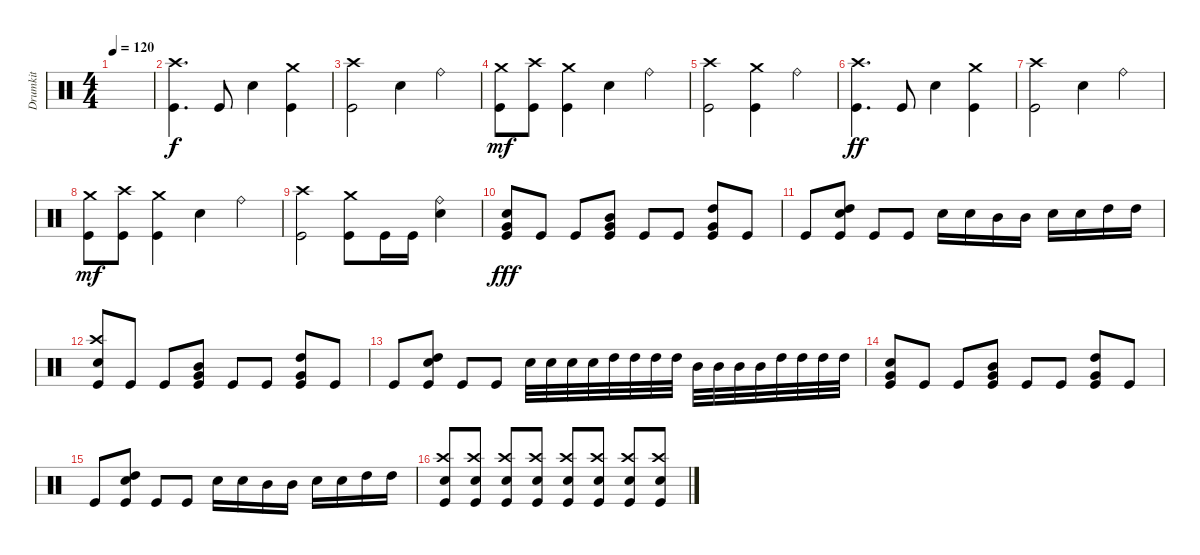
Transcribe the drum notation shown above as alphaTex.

\track ("Drumkit" "Drumkit") {instrument percussion}
\staff {score}
\articulation defaults
\ts (4 4)
\tempo 120
\clef neutral
\ks c
|
("Kick (hit)" "Crash high (hit)").4{d} "Kick (hit)".8 "Snare (hit) 2".4 ("Kick (hit)" "Crash medium (hit)").4 |
("Kick (hit)" "Crash high (hit)").2 "Snare (hit) 2".4 "Ride (bell)".4 |
("Kick (hit)" "Crash medium (hit)").8{dy mf} ("Kick (hit)" "Crash high (hit)").8 ("Kick (hit)" "Crash medium (hit)").4 "Snare (hit) 2".4 "Ride (bell)".4 |
("Kick (hit)" "Crash high (hit)").2 ("Kick (hit)" "Crash medium (hit)").4 "Ride (bell)".4 |
("Kick (hit)" "Crash high (hit)").4{d dy ff} "Kick (hit)".8 "Snare (hit) 2".4 ("Kick (hit)" "Crash medium (hit)").4 |
("Kick (hit)" "Crash high (hit)").2 "Snare (hit) 2".4 "Ride (bell)".4 |
("Kick (hit)" "Crash medium (hit)").8{dy mf} ("Kick (hit)" "Crash high (hit)").8 ("Kick (hit)" "Crash medium (hit)").4 "Snare (hit) 2".4 "Ride (bell)".4 |
("Kick (hit)" "Crash high (hit)").2 ("Kick (hit)" "Crash medium (hit)").8 "Kick (hit)".16 "Kick (hit)".16 ("Ride (bell)" "Snare (hit) 2").4 |
("Kick (hit)" "Snare (hit) 2" "Very Low Tom (hit)").8{dy fff} "Kick (hit)".8 "Kick (hit)".8 ("Kick (hit)" "Mid Tom (hit)" "Very Low Tom (hit)").8 "Kick (hit)".8 "Kick (hit)".8 ("Kick (hit)" "Very Low Tom (hit)" "High Tom (hit)").8 "Kick (hit)".8 |
"Kick (hit)".8 ("Kick (hit)" "Snare (hit) 2" "High Tom (hit)").8 "Kick (hit)".8 "Kick (hit)".8 "Snare (hit) 2".16 "Snare (hit) 2".16 "Mid Tom (hit)".16 "Mid Tom (hit)".16 "Snare (hit) 2".16 "Snare (hit) 2".16 "High Tom (hit)".16 "High Tom (hit)".16 |
("Kick (hit)" "Snare (hit) 2" "Crash high (hit)").8 "Kick (hit)".8 "Kick (hit)".8 ("Kick (hit)" "Mid Tom (hit)" "Very Low Tom (hit)").8 "Kick (hit)".8 "Kick (hit)".8 ("Kick (hit)" "Very Low Tom (hit)" "High Tom (hit)").8 "Kick (hit)".8 |
"Kick (hit)".8 ("Kick (hit)" "Snare (hit) 2" "High Tom (hit)").8 "Kick (hit)".8 "Kick (hit)".8 "Snare (hit) 2".32 "Snare (hit) 2".32 "Snare (hit) 2".32 "Snare (hit) 2".32 "High Tom (hit)".32 "High Tom (hit)".32 "High Tom (hit)".32 "High Tom (hit)".32 "Mid Tom (hit)".32 "Mid Tom (hit)".32 "Mid Tom (hit)".32 "Mid Tom (hit)".32 "High Tom (hit)".32 "High Tom (hit)".32 "High Tom (hit)".32 "High Tom (hit)".32 |
("Kick (hit)" "Snare (hit) 2" "Very Low Tom (hit)").8 "Kick (hit)".8 "Kick (hit)".8 ("Kick (hit)" "Mid Tom (hit)" "Very Low Tom (hit)").8 "Kick (hit)".8 "Kick (hit)".8 ("Kick (hit)" "Very Low Tom (hit)" "High Tom (hit)").8 "Kick (hit)".8 |
"Kick (hit)".8 ("Kick (hit)" "Snare (hit) 2" "High Tom (hit)").8 "Kick (hit)".8 "Kick (hit)".8 "Snare (hit) 2".16 "Snare (hit) 2".16 "Mid Tom (hit)".16 "Mid Tom (hit)".16 "Snare (hit) 2".16 "Snare (hit) 2".16 "High Tom (hit)".16 "High Tom (hit)".16 |
("Kick (hit)" "Snare (hit) 2" "Crash high (hit)").8 ("Kick (hit)" "Snare (hit) 2" "Crash high (hit)").8 ("Kick (hit)" "Snare (hit) 2" "Crash high (hit)").8 ("Kick (hit)" "Snare (hit) 2" "Crash high (hit)").8 ("Kick (hit)" "Snare (hit) 2" "Crash high (hit)").8 ("Kick (hit)" "Snare (hit) 2" "Crash high (hit)").8 ("Kick (hit)" "Snare (hit) 2" "Crash high (hit)").8 ("Kick (hit)" "Snare (hit) 2" "Crash high (hit)").8
